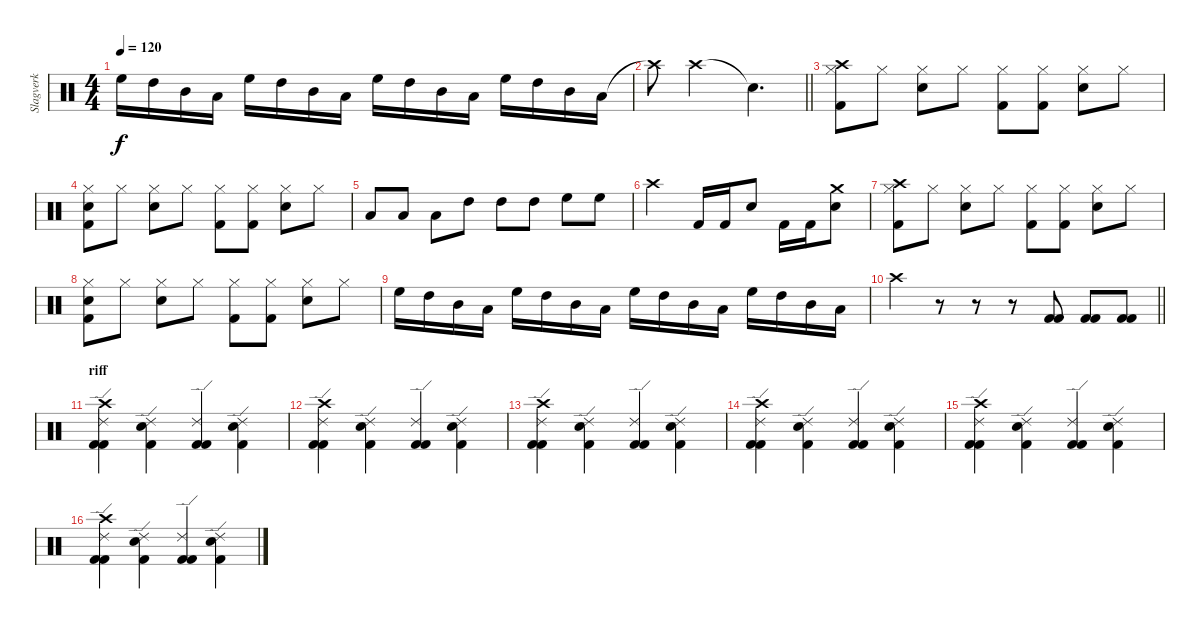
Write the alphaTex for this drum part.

\track ("Slagverk" "Slagverk") {instrument percussion}
\staff {score}
\articulation defaults
\ts (4 4)
\tempo 120
\clef neutral
\ks c "High Floor Tom (hit)".16{dy f} "High Tom (hit)".16 "Mid Tom (hit)".16 "Low Tom (hit)".16 "High Floor Tom (hit)".16 "High Tom (hit)".16 "Mid Tom (hit)".16 "Low Tom (hit)".16 "High Floor Tom (hit)".16 "High Tom (hit)".16 "Mid Tom (hit)".16 "Low Tom (hit)".16 "High Floor Tom (hit)".16 "High Tom (hit)".16 "Mid Tom (hit)".16 "Low Tom (hit)".16
|
\barLineRight lightlight "Crash high (hit)"{t}.8 "Crash high (hit)".2 "Snare (hit)"{t}.4{d}
|
("Kick (hit) 2" "Hi-Hat (closed)" "Crash high (hit)").8 "Hi-Hat (closed)".8 ("Snare (hit) 2" "Hi-Hat (closed)").8 "Hi-Hat (closed)".8 ("Kick (hit) 2" "Hi-Hat (closed)").8 ("Kick (hit) 2" "Hi-Hat (closed)").8 ("Snare (hit) 2" "Hi-Hat (closed)").8 "Hi-Hat (closed)".8 |
("Snare (hit) 2" "Kick (hit) 2" "Hi-Hat (closed)").8 "Hi-Hat (closed)".8 ("Snare (hit) 2" "Hi-Hat (closed)").8 "Hi-Hat (closed)".8 ("Kick (hit) 2" "Hi-Hat (closed)").8 ("Kick (hit) 2" "Hi-Hat (closed)").8 ("Snare (hit) 2" "Hi-Hat (closed)").8 "Hi-Hat (closed)".8 |
"Low Tom (hit)".8 "Low Tom (hit)".8 "Low Tom (hit)".8 "High Tom (hit)".8 "High Tom (hit)".8 "High Tom (hit)".8 "High Floor Tom (hit)".8 "High Floor Tom (hit)".8 |
"Crash high (hit)".2 "Kick (hit) 2".16 "Kick (hit) 2".16 "Snare (hit) 2".8 "Kick (hit) 2".16 "Kick (hit) 2".16 ("Snare (hit) 2" "Crash medium (hit)").8 |
("Kick (hit) 2" "Hi-Hat (closed)" "Crash high (hit)").8 "Hi-Hat (closed)".8 ("Snare (hit) 2" "Hi-Hat (closed)").8 "Hi-Hat (closed)".8 ("Kick (hit) 2" "Hi-Hat (closed)").8 ("Kick (hit) 2" "Hi-Hat (closed)").8 ("Snare (hit) 2" "Hi-Hat (closed)").8 "Hi-Hat (closed)".8 |
("Snare (hit) 2" "Kick (hit) 2" "Hi-Hat (closed)").8 "Hi-Hat (closed)".8 ("Snare (hit) 2" "Hi-Hat (closed)").8 "Hi-Hat (closed)".8 ("Kick (hit) 2" "Hi-Hat (closed)").8 ("Kick (hit) 2" "Hi-Hat (closed)").8 ("Snare (hit) 2" "Hi-Hat (closed)").8 "Hi-Hat (closed)".8 |
"High Floor Tom (hit)".16 "High Tom (hit)".16 "Mid Tom (hit)".16 "Low Tom (hit)".16 "High Floor Tom (hit)".16 "High Tom (hit)".16 "Mid Tom (hit)".16 "Low Tom (hit)".16 "High Floor Tom (hit)".16 "High Tom (hit)".16 "Mid Tom (hit)".16 "Low Tom (hit)".16 "High Floor Tom (hit)".16 "High Tom (hit)".16 "Mid Tom (hit)".16 "Low Tom (hit)".16 |
\barLineRight lightlight "Crash high (hit)".4
r.8 r.8 r.8 ("Kick (hit) 2" "Kick (hit) 2").8 ("Kick (hit) 2" "Kick (hit) 2").8 ("Kick (hit) 2" "Kick (hit) 2").8 |
\section ("" "riff")
("Kick (hit) 2" "Kick (hit) 2" "Crash high (hit)" "Ride (edge) 2").4 ("Snare (hit) 2" "Kick (hit) 2" "Ride (edge) 2").4 ("Kick (hit) 2" "Kick (hit) 2" "Ride (edge) 2").4 ("Snare (hit) 2" "Kick (hit) 2" "Ride (edge) 2").4 |
("Kick (hit) 2" "Kick (hit) 2" "Crash high (hit)" "Ride (edge) 2").4 ("Snare (hit) 2" "Kick (hit) 2" "Ride (edge) 2").4 ("Kick (hit) 2" "Kick (hit) 2" "Ride (edge) 2").4 ("Snare (hit) 2" "Kick (hit) 2" "Ride (edge) 2").4 |
("Kick (hit) 2" "Kick (hit) 2" "Crash high (hit)" "Ride (edge) 2").4 ("Snare (hit) 2" "Kick (hit) 2" "Ride (edge) 2").4 ("Kick (hit) 2" "Kick (hit) 2" "Ride (edge) 2").4 ("Snare (hit) 2" "Kick (hit) 2" "Ride (edge) 2").4 |
("Kick (hit) 2" "Kick (hit) 2" "Crash high (hit)" "Ride (edge) 2").4 ("Snare (hit) 2" "Kick (hit) 2" "Ride (edge) 2").4 ("Kick (hit) 2" "Kick (hit) 2" "Ride (edge) 2").4 ("Snare (hit) 2" "Kick (hit) 2" "Ride (edge) 2").4 |
("Kick (hit) 2" "Kick (hit) 2" "Crash high (hit)" "Ride (edge) 2").4 ("Snare (hit) 2" "Kick (hit) 2" "Ride (edge) 2").4 ("Kick (hit) 2" "Kick (hit) 2" "Ride (edge) 2").4 ("Snare (hit) 2" "Kick (hit) 2" "Ride (edge) 2").4 |
("Kick (hit) 2" "Kick (hit) 2" "Crash high (hit)" "Ride (edge) 2").4 ("Snare (hit) 2" "Kick (hit) 2" "Ride (edge) 2").4 ("Kick (hit) 2" "Kick (hit) 2" "Ride (edge) 2").4 ("Snare (hit) 2" "Kick (hit) 2" "Ride (edge) 2").4
